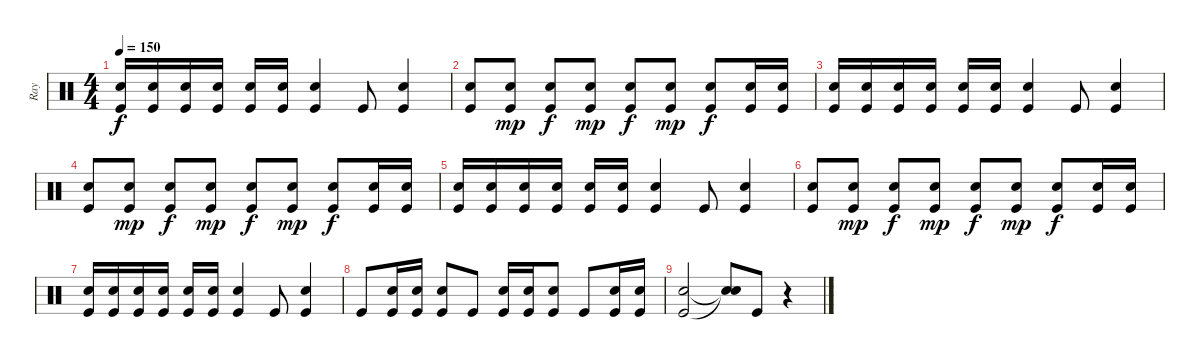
\track ("Ray" "Ray") {instrument percussion}
\staff {score}
\articulation defaults
\ts (4 4)
\tempo 150
\clef neutral
\ks c
("Kick (hit)" "Electric Snare (hit)").16{dy f} ("Kick (hit)" "Electric Snare (hit)").16 ("Kick (hit)" "Electric Snare (hit)").16 ("Kick (hit)" "Electric Snare (hit)").16 ("Kick (hit)" "Electric Snare (hit)").16 ("Kick (hit)" "Electric Snare (hit)").16 ("Kick (hit)" "Electric Snare (hit)").4 "Kick (hit)".8 ("Kick (hit)" "Electric Snare (hit)").4 |
("Kick (hit)" "Electric Snare (hit)").8 ("Kick (hit)" "Electric Snare (hit)").8{dy mp} ("Kick (hit)" "Electric Snare (hit)").8{dy f} ("Kick (hit)" "Electric Snare (hit)").8{dy mp} ("Kick (hit)" "Electric Snare (hit)").8{dy f} ("Kick (hit)" "Electric Snare (hit)").8{dy mp} ("Kick (hit)" "Electric Snare (hit)").8{dy f} ("Kick (hit)" "Electric Snare (hit)").16 ("Kick (hit)" "Electric Snare (hit)").16 |
("Kick (hit)" "Electric Snare (hit)").16 ("Kick (hit)" "Electric Snare (hit)").16 ("Kick (hit)" "Electric Snare (hit)").16 ("Kick (hit)" "Electric Snare (hit)").16 ("Kick (hit)" "Electric Snare (hit)").16 ("Kick (hit)" "Electric Snare (hit)").16 ("Kick (hit)" "Electric Snare (hit)").4 "Kick (hit)".8 ("Kick (hit)" "Electric Snare (hit)").4 |
("Kick (hit)" "Electric Snare (hit)").8 ("Kick (hit)" "Electric Snare (hit)").8{dy mp} ("Kick (hit)" "Electric Snare (hit)").8{dy f} ("Kick (hit)" "Electric Snare (hit)").8{dy mp} ("Kick (hit)" "Electric Snare (hit)").8{dy f} ("Kick (hit)" "Electric Snare (hit)").8{dy mp} ("Kick (hit)" "Electric Snare (hit)").8{dy f} ("Kick (hit)" "Electric Snare (hit)").16 ("Kick (hit)" "Electric Snare (hit)").16 |
("Kick (hit)" "Electric Snare (hit)").16 ("Kick (hit)" "Electric Snare (hit)").16 ("Kick (hit)" "Electric Snare (hit)").16 ("Kick (hit)" "Electric Snare (hit)").16 ("Kick (hit)" "Electric Snare (hit)").16 ("Kick (hit)" "Electric Snare (hit)").16 ("Kick (hit)" "Electric Snare (hit)").4 "Kick (hit)".8 ("Kick (hit)" "Electric Snare (hit)").4 |
("Kick (hit)" "Electric Snare (hit)").8 ("Kick (hit)" "Electric Snare (hit)").8{dy mp} ("Kick (hit)" "Electric Snare (hit)").8{dy f} ("Kick (hit)" "Electric Snare (hit)").8{dy mp} ("Kick (hit)" "Electric Snare (hit)").8{dy f} ("Kick (hit)" "Electric Snare (hit)").8{dy mp} ("Kick (hit)" "Electric Snare (hit)").8{dy f} ("Kick (hit)" "Electric Snare (hit)").16 ("Kick (hit)" "Electric Snare (hit)").16 |
("Kick (hit)" "Electric Snare (hit)").16 ("Kick (hit)" "Electric Snare (hit)").16 ("Kick (hit)" "Electric Snare (hit)").16 ("Kick (hit)" "Electric Snare (hit)").16 ("Kick (hit)" "Electric Snare (hit)").16 ("Kick (hit)" "Electric Snare (hit)").16 ("Kick (hit)" "Electric Snare (hit)").4 "Kick (hit)".8 ("Kick (hit)" "Electric Snare (hit)").4 |
"Kick (hit)".8 ("Kick (hit)" "Electric Snare (hit)").16 ("Kick (hit)" "Electric Snare (hit)").16 ("Kick (hit)" "Electric Snare (hit)").8 "Kick (hit)".8 ("Kick (hit)" "Electric Snare (hit)").16 ("Kick (hit)" "Electric Snare (hit)").16 ("Kick (hit)" "Electric Snare (hit)").8 "Kick (hit)".8 ("Kick (hit)" "Electric Snare (hit)").16 ("Kick (hit)" "Electric Snare (hit)").16 |
("Kick (hit)" "Electric Snare (hit)").2 ("Snare (hit)"{t} "Snare (hit)"{t}).8 "Kick (hit)".8 r.4
